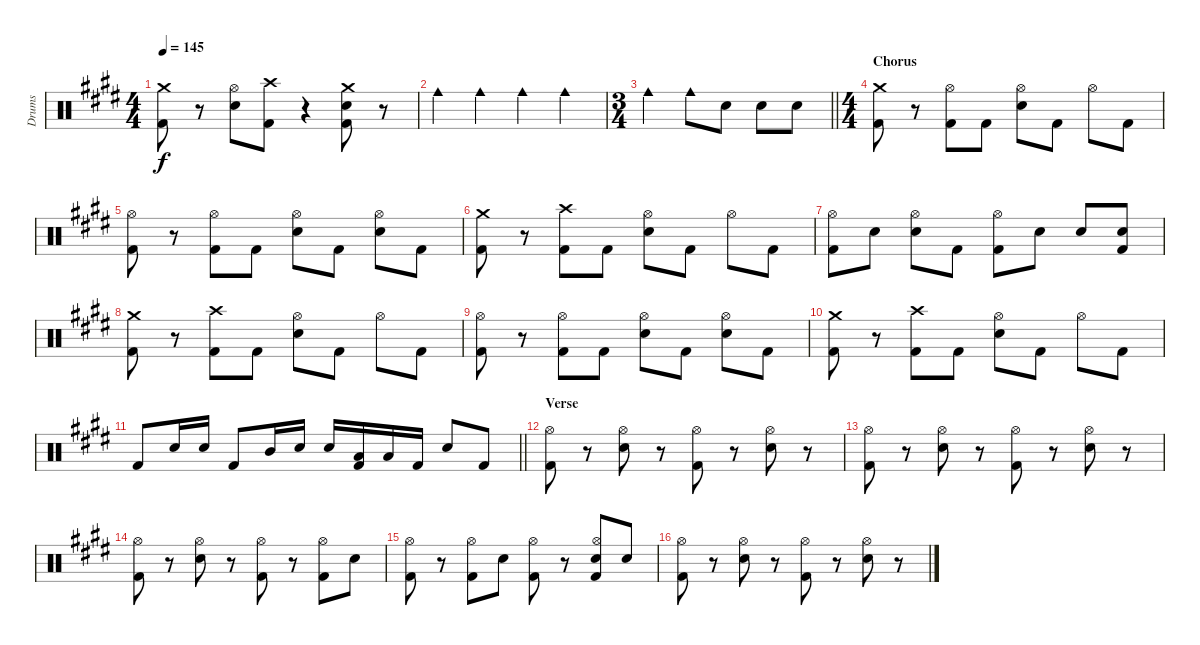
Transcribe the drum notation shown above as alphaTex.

\track ("Drums" "Drums") {instrument percussion}
\staff {score}
\articulation defaults
\ts (4 4)
\tempo 145
\clef neutral
\ks e
("Crash medium (hit)" "Kick (hit) 2").8{dy f} r.8 ("Hi-Hat (open)" "Electric Snare (hit)").8 ("Crash high (hit)" "Kick (hit) 2").8 r.4 ("Crash medium (hit)" "Electric Snare (hit)" "Kick (hit) 2").8 r.8 |
"Cowbell medium (hit)".4 "Cowbell medium (hit)".4 "Cowbell medium (hit)".4 "Cowbell medium (hit)".4 |
\ts (3 4)
\barLineRight lightlight "Cowbell medium (hit)".4 "Cowbell medium (hit)".8 "Electric Snare (hit)".8 "Electric Snare (hit)".8 "Electric Snare (hit)".8
|
\ts (4 4)
\section ("" "Chorus")
("Crash medium (hit)" "Kick (hit) 2").8 r.8 ("Hi-Hat (open)" "Kick (hit) 2").8 "Kick (hit) 2".8 ("Hi-Hat (open)" "Electric Snare (hit)").8 "Kick (hit) 2".8 "Hi-Hat (open)".8 "Kick (hit) 2".8 |
("Hi-Hat (open)" "Kick (hit) 2").8 r.8 ("Hi-Hat (open)" "Kick (hit) 2").8 "Kick (hit) 2".8 ("Hi-Hat (open)" "Electric Snare (hit)").8 "Kick (hit) 2".8 ("Hi-Hat (open)" "Electric Snare (hit)").8 "Kick (hit) 2".8 |
("Crash medium (hit)" "Kick (hit) 2").8 r.8 ("Crash high (hit)" "Kick (hit) 2").8 "Kick (hit) 2".8 ("Hi-Hat (open)" "Electric Snare (hit)").8 "Kick (hit) 2".8 "Hi-Hat (open)".8 "Kick (hit) 2".8 |
("Hi-Hat (open)" "Kick (hit) 2").8 "Electric Snare (hit)".8 ("Hi-Hat (open)" "Electric Snare (hit)").8 "Kick (hit) 2".8 ("Hi-Hat (open)" "Kick (hit) 2").8 "Electric Snare (hit)".8 "Electric Snare (hit)".8 ("Electric Snare (hit)" "Kick (hit) 2").8 |
("Crash medium (hit)" "Kick (hit) 2").8 r.8 ("Crash high (hit)" "Kick (hit) 2").8 "Kick (hit) 2".8 ("Hi-Hat (open)" "Electric Snare (hit)").8 "Kick (hit) 2".8 "Hi-Hat (open)".8 "Kick (hit) 2".8 |
("Hi-Hat (open)" "Kick (hit) 2").8 r.8 ("Hi-Hat (open)" "Kick (hit) 2").8 "Kick (hit) 2".8 ("Hi-Hat (open)" "Electric Snare (hit)").8 "Kick (hit) 2".8 ("Hi-Hat (open)" "Electric Snare (hit)").8 "Kick (hit) 2".8 |
("Crash medium (hit)" "Kick (hit) 2").8 r.8 ("Crash high (hit)" "Kick (hit) 2").8 "Kick (hit) 2".8 ("Hi-Hat (open)" "Electric Snare (hit)").8 "Kick (hit) 2".8 "Hi-Hat (open)".8 "Kick (hit) 2".8 |
\barLineRight lightlight "Kick (hit) 2".8 "Electric Snare (hit)".16 "Electric Snare (hit)".16 "Kick (hit) 2".8 "Mid Tom (hit)".16 "Electric Snare (hit)".16 "Electric Snare (hit)".16
("Low Tom (hit)" "Kick (hit) 2").16 "Low Tom (hit)".16 "Kick (hit) 2".16 "Electric Snare (hit)".8 "Kick (hit) 2".8 |
\section ("" "Verse")
("Hi-Hat (open)" "Kick (hit) 2").8 r.8 ("Hi-Hat (open)" "Electric Snare (hit)").8 r.8 ("Hi-Hat (open)" "Kick (hit) 2").8 r.8 ("Hi-Hat (open)" "Electric Snare (hit)").8 r.8 |
("Hi-Hat (open)" "Kick (hit) 2").8 r.8 ("Hi-Hat (open)" "Electric Snare (hit)").8 r.8 ("Hi-Hat (open)" "Kick (hit) 2").8 r.8 ("Hi-Hat (open)" "Electric Snare (hit)").8 r.8 |
("Hi-Hat (open)" "Kick (hit) 2").8 r.8 ("Hi-Hat (open)" "Electric Snare (hit)").8 r.8 ("Hi-Hat (open)" "Kick (hit) 2").8 r.8 ("Hi-Hat (open)" "Kick (hit) 2").8 "Electric Snare (hit)".8 |
("Hi-Hat (open)" "Kick (hit) 2").8 r.8 ("Hi-Hat (open)" "Kick (hit) 2").8 "Electric Snare (hit)".8 ("Hi-Hat (open)" "Kick (hit) 2").8 r.8 ("Hi-Hat (open)" "Electric Snare (hit)" "Kick (hit) 2").8 "Electric Snare (hit)".8 |
("Hi-Hat (open)" "Kick (hit) 2").8 r.8 ("Hi-Hat (open)" "Electric Snare (hit)").8 r.8 ("Hi-Hat (open)" "Kick (hit) 2").8 r.8 ("Hi-Hat (open)" "Electric Snare (hit)").8 r.8
